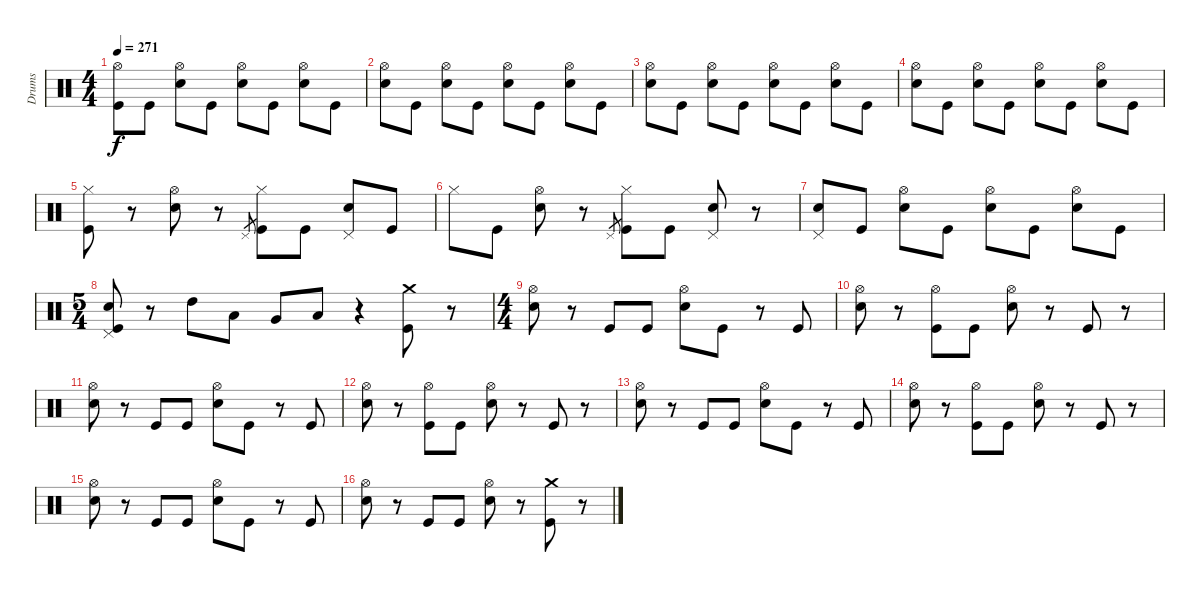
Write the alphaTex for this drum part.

\track ("Drums" "Drums") {instrument percussion}
\staff {score}
\articulation defaults
\ts (4 4)
\tempo 271
\clef neutral
\ks c
("Hi-Hat (open)" "Kick (hit)").8{dy f} "Kick (hit)".8 ("Hi-Hat (open)" "Electric Snare (hit)").8 "Kick (hit)".8 ("Hi-Hat (open)" "Electric Snare (hit)").8 "Kick (hit)".8 ("Hi-Hat (open)" "Electric Snare (hit)").8 "Kick (hit)".8 |
("Hi-Hat (open)" "Electric Snare (hit)").8 "Kick (hit)".8 ("Hi-Hat (open)" "Electric Snare (hit)").8 "Kick (hit)".8 ("Hi-Hat (open)" "Electric Snare (hit)").8 "Kick (hit)".8 ("Hi-Hat (open)" "Electric Snare (hit)").8 "Kick (hit)".8 |
("Hi-Hat (open)" "Electric Snare (hit)").8 "Kick (hit)".8 ("Hi-Hat (open)" "Electric Snare (hit)").8 "Kick (hit)".8 ("Hi-Hat (open)" "Electric Snare (hit)").8 "Kick (hit)".8 ("Hi-Hat (open)" "Electric Snare (hit)").8 "Kick (hit)".8 |
("Hi-Hat (open)" "Electric Snare (hit)").8 "Kick (hit)".8 ("Hi-Hat (open)" "Electric Snare (hit)").8 "Kick (hit)".8 ("Hi-Hat (open)" "Electric Snare (hit)").8 "Kick (hit)".8 ("Hi-Hat (open)" "Electric Snare (hit)").8 "Kick (hit)".8 |
("Hi-Hat (closed)" "Kick (hit)").8 r.8 ("Hi-Hat (open)" "Electric Snare (hit)").8 r.8 "Pedal Hi-Hat (hit)".8{gr} ("Hi-Hat (closed)" "Kick (hit)").8 "Kick (hit)".8 ("Pedal Hi-Hat (hit)" "Electric Snare (hit)").8 "Kick (hit)".8 |
"Hi-Hat (closed)".8 "Kick (hit)".8 ("Hi-Hat (open)" "Electric Snare (hit)").8 r.8 "Pedal Hi-Hat (hit)".8{gr} ("Hi-Hat (closed)" "Kick (hit)").8 "Kick (hit)".8 ("Pedal Hi-Hat (hit)" "Electric Snare (hit)").8 r.8 |
("Pedal Hi-Hat (hit)" "Electric Snare (hit)").8 "Kick (hit)".8 ("Hi-Hat (open)" "Electric Snare (hit)").8 "Kick (hit)".8 ("Hi-Hat (open)" "Electric Snare (hit)").8 "Kick (hit)".8 ("Hi-Hat (open)" "Electric Snare (hit)").8 "Kick (hit)".8 |
\ts (5 4)
("Pedal Hi-Hat (hit)" "Electric Snare (hit)" "Kick (hit)").8 r.8 "High Tom (hit)".8 "Low Tom (hit)".8 "Very Low Tom (hit)".8 "Low Floor Tom (hit)".8 r.4 ("Crash medium (hit)" "Kick (hit)").8 r.8 |
\ts (4 4)
("Hi-Hat (open)" "Electric Snare (hit)").8 r.8 "Kick (hit)".8 "Kick (hit)".8 ("Hi-Hat (open)" "Electric Snare (hit)").8 "Kick (hit)".8 r.8 "Kick (hit)".8 |
("Hi-Hat (open)" "Electric Snare (hit)").8 r.8 ("Hi-Hat (open)" "Kick (hit)").8 "Kick (hit)".8 ("Hi-Hat (open)" "Electric Snare (hit)").8 r.8 "Kick (hit)".8 r.8 |
("Hi-Hat (open)" "Electric Snare (hit)").8 r.8 "Kick (hit)".8 "Kick (hit)".8 ("Hi-Hat (open)" "Electric Snare (hit)").8 "Kick (hit)".8 r.8 "Kick (hit)".8 |
("Hi-Hat (open)" "Electric Snare (hit)").8 r.8 ("Hi-Hat (open)" "Kick (hit)").8 "Kick (hit)".8 ("Hi-Hat (open)" "Electric Snare (hit)").8 r.8 "Kick (hit)".8 r.8 |
("Hi-Hat (open)" "Electric Snare (hit)").8 r.8 "Kick (hit)".8 "Kick (hit)".8 ("Hi-Hat (open)" "Electric Snare (hit)").8 "Kick (hit)".8 r.8 "Kick (hit)".8 |
("Hi-Hat (open)" "Electric Snare (hit)").8 r.8 ("Hi-Hat (open)" "Kick (hit)").8 "Kick (hit)".8 ("Hi-Hat (open)" "Electric Snare (hit)").8 r.8 "Kick (hit)".8 r.8 |
("Hi-Hat (open)" "Electric Snare (hit)").8 r.8 "Kick (hit)".8 "Kick (hit)".8 ("Hi-Hat (open)" "Electric Snare (hit)").8 "Kick (hit)".8 r.8 "Kick (hit)".8 |
("Hi-Hat (open)" "Electric Snare (hit)").8 r.8 "Kick (hit)".8 "Kick (hit)".8 ("Hi-Hat (open)" "Electric Snare (hit)").8 r.8 ("Crash medium (hit)" "Kick (hit)").8 r.8
